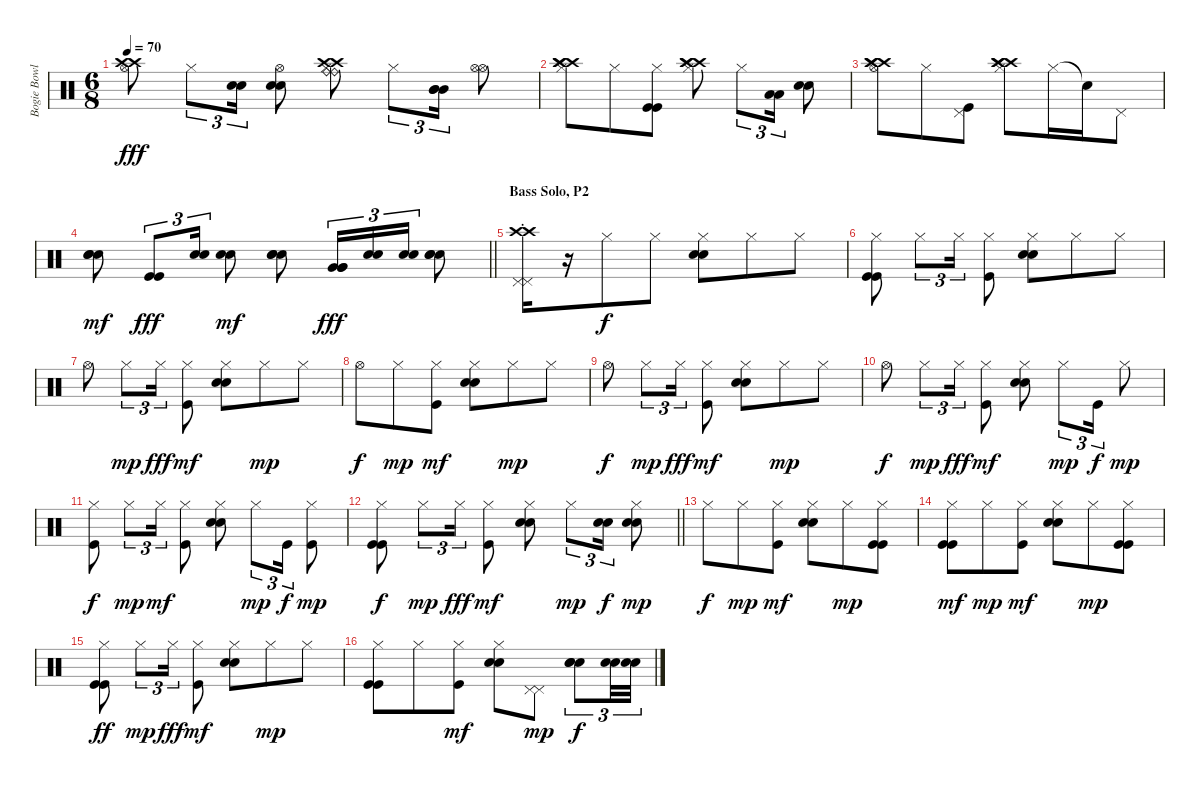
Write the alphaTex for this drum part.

\track ("Bogie Bowles" "Bogie Bowl") {instrument percussion}
\staff {score}
\articulation defaults
\ts (6 8)
\tempo 70
\clef neutral
\ks c
("Hi-Hat (open)" "Crash high (hit)" "Crash high (hit)").8{dy fff} "Hi-Hat (closed)".8{tu (3 2)} ("Snare (hit) 2" "Snare (hit) 2").16{tu (3 2)} ("Hi-Hat (open)" "Snare (hit) 2" "Snare (hit) 2").8 ("Hi-Hat (closed)" "Crash high (hit)" "Crash high (hit)" "Ride (bell)" "Ride (bell)").8 "Hi-Hat (closed)".8{tu (3 2)} ("Mid Tom (hit)" "Mid Tom (hit)" "Mid Tom (hit)").16{tu (3 2)} ("Hi-Hat (open)" "Hi-Hat (open)").8 |
("Hi-Hat (closed)" "Crash high (hit)" "Crash high (hit)" "Crash high (hit)").8 "Hi-Hat (closed)".8 ("Hi-Hat (closed)" "Kick (hit)" "Kick (hit)").8 ("Hi-Hat (closed)" "Crash high (hit)" "Crash high (hit)" "Crash high (hit)").8 "Hi-Hat (closed)".8{tu (3 2)} ("Low Tom (hit)" "Low Tom (hit)").16{tu (3 2)} ("Snare (hit) 2" "Snare (hit) 2").8 |
("Hi-Hat (open)" "Crash high (hit)" "Crash high (hit)" "Crash high (hit)").8 "Hi-Hat (closed)".8 ("Pedal Hi-Hat (hit)" "Kick (hit)").8 ("Hi-Hat (closed)" "Crash high (hit)" "Crash high (hit)" "Crash high (hit)").8 "Hi-Hat (closed)".16 "Snare (hit)"{t}.16 "Pedal Hi-Hat (hit)".8 |
\barLineRight lightlight
("Snare (hit) 2" "Snare (hit) 2" "Snare (hit) 2").8{dy mf} ("Kick (hit)" "Kick (hit)").8{tu (3 2) dy fff} ("Snare (hit) 2" "Snare (hit) 2").16{tu (3 2)} ("Snare (hit) 2" "Snare (hit) 2").8{dy mf} ("Snare (hit) 2" "Snare (hit) 2" "Snare (hit) 2").8 ("Very Low Tom (hit)" "Very Low Tom (hit)" "Very Low Tom (hit)").16{tu (3 2) dy fff} ("Snare (hit) 2" "Snare (hit) 2").16{tu (3 2)} ("Snare (hit) 2" "Snare (hit) 2").16{tu (3 2)} ("Snare (hit) 2" "Snare (hit) 2" "Snare (hit) 2").8 |
\section ("" "Bass Solo, P2")
("Pedal Hi-Hat (hit)" "Pedal Hi-Hat (hit)" "Crash high (hit)"{st} "Crash high (hit)"{st}).16 r.16 "Hi-Hat (closed)".8{dy f} "Hi-Hat (closed)".8 ("Hi-Hat (closed)" "Snare (hit) 2" "Snare (hit) 2").8 "Hi-Hat (closed)".8 "Hi-Hat (closed)".8 |
("Hi-Hat (closed)" "Kick (hit)" "Kick (hit)").8 "Hi-Hat (closed)".8{tu (3 2)} "Hi-Hat (closed)".16{tu (3 2)} ("Hi-Hat (closed)" "Kick (hit)").8 ("Hi-Hat (closed)" "Snare (hit) 2" "Snare (hit) 2").8 "Hi-Hat (closed)".8 "Hi-Hat (closed)".8 |
"Hi-Hat (open)".8 "Hi-Hat (closed)".8{tu (3 2) dy mp} "Hi-Hat (closed)".16{tu (3 2) dy fff} ("Hi-Hat (closed)" "Kick (hit)").8{dy mf} ("Hi-Hat (closed)" "Snare (hit) 2" "Snare (hit) 2").8 "Hi-Hat (closed)".8{dy mp} "Hi-Hat (closed)".8 |
"Hi-Hat (open)".8{dy f} "Hi-Hat (closed)".8{dy mp} ("Hi-Hat (closed)" "Kick (hit)").8{dy mf} ("Hi-Hat (closed)" "Snare (hit) 2" "Snare (hit) 2").8 "Hi-Hat (closed)".8{dy mp} "Hi-Hat (closed)".8 |
"Hi-Hat (open)".8{dy f} "Hi-Hat (closed)".8{tu (3 2) dy mp} "Hi-Hat (closed)".16{tu (3 2) dy fff} ("Hi-Hat (closed)" "Kick (hit)").8{dy mf} ("Hi-Hat (closed)" "Snare (hit) 2" "Snare (hit) 2").8 "Hi-Hat (closed)".8{dy mp} "Hi-Hat (closed)".8 |
"Hi-Hat (open)".8{dy f} "Hi-Hat (closed)".8{tu (3 2) dy mp} "Hi-Hat (closed)".16{tu (3 2) dy fff} ("Hi-Hat (closed)" "Kick (hit)").8{dy mf} ("Hi-Hat (closed)" "Snare (hit) 2" "Snare (hit) 2").8 "Hi-Hat (closed)".8{tu (3 2) dy mp} "Kick (hit)".16{tu (3 2) dy f} "Hi-Hat (closed)".8{dy mp} |
("Hi-Hat (closed)" "Kick (hit)").8{dy f} "Hi-Hat (closed)".8{tu (3 2) dy mp} "Hi-Hat (closed)".16{tu (3 2) dy mf} ("Hi-Hat (closed)" "Kick (hit)").8 ("Hi-Hat (closed)" "Snare (hit) 2" "Snare (hit) 2").8 "Hi-Hat (closed)".8{tu (3 2) dy mp} "Kick (hit)".16{tu (3 2) dy f} ("Hi-Hat (closed)" "Kick (hit)").8{dy mp} |
\barLineRight lightlight
("Hi-Hat (closed)" "Kick (hit)" "Kick (hit)").8{dy f} "Hi-Hat (closed)".8{tu (3 2) dy mp} "Hi-Hat (closed)".16{tu (3 2) dy fff} ("Hi-Hat (closed)" "Kick (hit)").8{dy mf} ("Hi-Hat (closed)" "Snare (hit) 2" "Snare (hit) 2").8 "Hi-Hat (closed)".8{tu (3 2) dy mp} ("Snare (hit) 2" "Snare (hit) 2").16{tu (3 2) dy f} ("Hi-Hat (closed)" "Snare (hit) 2" "Snare (hit) 2").8{dy mp} |
"Hi-Hat (closed)".8{dy f} "Hi-Hat (closed)".8{dy mp} ("Hi-Hat (closed)" "Kick (hit)").8{dy mf} ("Hi-Hat (closed)" "Snare (hit) 2" "Snare (hit) 2").8 "Hi-Hat (closed)".8{dy mp} ("Hi-Hat (closed)" "Kick (hit)" "Kick (hit)").8 |
("Hi-Hat (closed)" "Kick (hit)" "Kick (hit)").8{dy mf} "Hi-Hat (closed)".8{dy mp} ("Hi-Hat (closed)" "Kick (hit)").8{dy mf} ("Hi-Hat (closed)" "Snare (hit) 2" "Snare (hit) 2").8 "Hi-Hat (closed)".8{dy mp} ("Hi-Hat (closed)" "Kick (hit)" "Kick (hit)").8 |
("Hi-Hat (closed)" "Kick (hit)" "Kick (hit)").8{dy ff} "Hi-Hat (closed)".8{tu (3 2) dy mp} "Hi-Hat (closed)".16{tu (3 2) dy fff} ("Hi-Hat (closed)" "Kick (hit)").8{dy mf} ("Hi-Hat (closed)" "Snare (hit) 2" "Snare (hit) 2").8 "Hi-Hat (closed)".8{dy mp} "Hi-Hat (closed)".8 |
("Hi-Hat (closed)" "Kick (hit)" "Kick (hit)").8 "Hi-Hat (closed)".8 ("Hi-Hat (closed)" "Kick (hit)").8{dy mf} ("Hi-Hat (closed)" "Snare (hit) 2" "Snare (hit) 2").8 ("Pedal Hi-Hat (hit)" "Pedal Hi-Hat (hit)").8{dy mp} ("Snare (hit) 2" "Snare (hit) 2" "Snare (hit) 2").8{tu (3 2) dy f} ("Snare (hit) 2" "Snare (hit) 2").32{tu (3 2)} ("Snare (hit) 2" "Snare (hit) 2").32{tu (3 2)}
